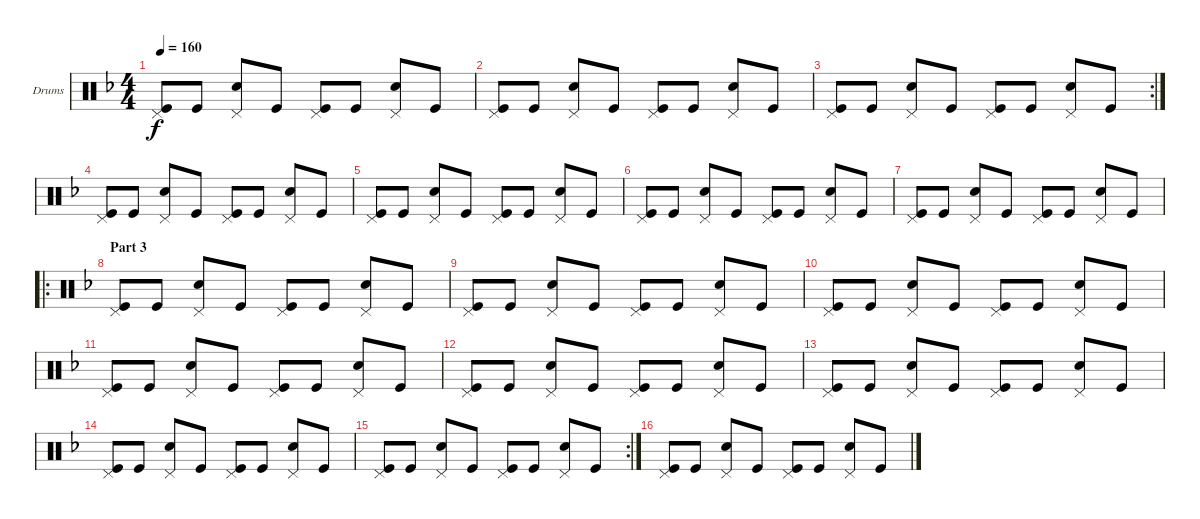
\defaultSystemsLayout 4
\bracketExtendMode groupsimilarinstruments
\firstSystemTrackNameOrientation horizontal
\otherSystemsTrackNameOrientation horizontal
\track ("Drumkit" "Drums") {instrument percussion}
\staff {score}
\articulation defaults
\ts (4 4)
\tempo 160
\clef neutral
\ks dminor
("Kick (hit)" "Pedal Hi-Hat (hit)").8{dy f} "Kick (hit)".8 ("Snare (hit) 2" "Pedal Hi-Hat (hit)").8 "Kick (hit)".8 ("Kick (hit)" "Pedal Hi-Hat (hit)").8 "Kick (hit)".8 ("Snare (hit) 2" "Pedal Hi-Hat (hit)").8 "Kick (hit)".8 |
("Kick (hit)" "Pedal Hi-Hat (hit)").8 "Kick (hit)".8 ("Snare (hit) 2" "Pedal Hi-Hat (hit)").8 "Kick (hit)".8 ("Kick (hit)" "Pedal Hi-Hat (hit)").8 "Kick (hit)".8 ("Snare (hit) 2" "Pedal Hi-Hat (hit)").8 "Kick (hit)".8 |
\rc 2
("Kick (hit)" "Pedal Hi-Hat (hit)").8 "Kick (hit)".8 ("Snare (hit) 2" "Pedal Hi-Hat (hit)").8 "Kick (hit)".8 ("Kick (hit)" "Pedal Hi-Hat (hit)").8 "Kick (hit)".8 ("Snare (hit) 2" "Pedal Hi-Hat (hit)").8 "Kick (hit)".8 |
("Kick (hit)" "Pedal Hi-Hat (hit)").8 "Kick (hit)".8 ("Snare (hit) 2" "Pedal Hi-Hat (hit)").8 "Kick (hit)".8 ("Kick (hit)" "Pedal Hi-Hat (hit)").8 "Kick (hit)".8 ("Snare (hit) 2" "Pedal Hi-Hat (hit)").8 "Kick (hit)".8 |
("Kick (hit)" "Pedal Hi-Hat (hit)").8 "Kick (hit)".8 ("Snare (hit) 2" "Pedal Hi-Hat (hit)").8 "Kick (hit)".8 ("Kick (hit)" "Pedal Hi-Hat (hit)").8 "Kick (hit)".8 ("Snare (hit) 2" "Pedal Hi-Hat (hit)").8 "Kick (hit)".8 |
("Kick (hit)" "Pedal Hi-Hat (hit)").8 "Kick (hit)".8 ("Snare (hit) 2" "Pedal Hi-Hat (hit)").8 "Kick (hit)".8 ("Kick (hit)" "Pedal Hi-Hat (hit)").8 "Kick (hit)".8 ("Snare (hit) 2" "Pedal Hi-Hat (hit)").8 "Kick (hit)".8 |
("Kick (hit)" "Pedal Hi-Hat (hit)").8 "Kick (hit)".8 ("Snare (hit) 2" "Pedal Hi-Hat (hit)").8 "Kick (hit)".8 ("Kick (hit)" "Pedal Hi-Hat (hit)").8 "Kick (hit)".8 ("Snare (hit) 2" "Pedal Hi-Hat (hit)").8 "Kick (hit)".8 |
\ro
\section ("" "Part 3")
("Kick (hit)" "Pedal Hi-Hat (hit)").8 "Kick (hit)".8 ("Snare (hit) 2" "Pedal Hi-Hat (hit)").8 "Kick (hit)".8 ("Kick (hit)" "Pedal Hi-Hat (hit)").8 "Kick (hit)".8 ("Snare (hit) 2" "Pedal Hi-Hat (hit)").8 "Kick (hit)".8 |
("Kick (hit)" "Pedal Hi-Hat (hit)").8 "Kick (hit)".8 ("Snare (hit) 2" "Pedal Hi-Hat (hit)").8 "Kick (hit)".8 ("Kick (hit)" "Pedal Hi-Hat (hit)").8 "Kick (hit)".8 ("Snare (hit) 2" "Pedal Hi-Hat (hit)").8 "Kick (hit)".8 |
("Kick (hit)" "Pedal Hi-Hat (hit)").8 "Kick (hit)".8 ("Snare (hit) 2" "Pedal Hi-Hat (hit)").8 "Kick (hit)".8 ("Kick (hit)" "Pedal Hi-Hat (hit)").8 "Kick (hit)".8 ("Snare (hit) 2" "Pedal Hi-Hat (hit)").8 "Kick (hit)".8 |
("Kick (hit)" "Pedal Hi-Hat (hit)").8 "Kick (hit)".8 ("Snare (hit) 2" "Pedal Hi-Hat (hit)").8 "Kick (hit)".8 ("Kick (hit)" "Pedal Hi-Hat (hit)").8 "Kick (hit)".8 ("Snare (hit) 2" "Pedal Hi-Hat (hit)").8 "Kick (hit)".8 |
("Kick (hit)" "Pedal Hi-Hat (hit)").8 "Kick (hit)".8 ("Snare (hit) 2" "Pedal Hi-Hat (hit)").8 "Kick (hit)".8 ("Kick (hit)" "Pedal Hi-Hat (hit)").8 "Kick (hit)".8 ("Snare (hit) 2" "Pedal Hi-Hat (hit)").8 "Kick (hit)".8 |
("Kick (hit)" "Pedal Hi-Hat (hit)").8 "Kick (hit)".8 ("Snare (hit) 2" "Pedal Hi-Hat (hit)").8 "Kick (hit)".8 ("Kick (hit)" "Pedal Hi-Hat (hit)").8 "Kick (hit)".8 ("Snare (hit) 2" "Pedal Hi-Hat (hit)").8 "Kick (hit)".8 |
("Kick (hit)" "Pedal Hi-Hat (hit)").8 "Kick (hit)".8 ("Snare (hit) 2" "Pedal Hi-Hat (hit)").8 "Kick (hit)".8 ("Kick (hit)" "Pedal Hi-Hat (hit)").8 "Kick (hit)".8 ("Snare (hit) 2" "Pedal Hi-Hat (hit)").8 "Kick (hit)".8 |
\rc 2
("Kick (hit)" "Pedal Hi-Hat (hit)").8 "Kick (hit)".8 ("Snare (hit) 2" "Pedal Hi-Hat (hit)").8 "Kick (hit)".8 ("Kick (hit)" "Pedal Hi-Hat (hit)").8 "Kick (hit)".8 ("Snare (hit) 2" "Pedal Hi-Hat (hit)").8 "Kick (hit)".8 |
("Kick (hit)" "Pedal Hi-Hat (hit)").8 "Kick (hit)".8 ("Snare (hit) 2" "Pedal Hi-Hat (hit)").8 "Kick (hit)".8 ("Kick (hit)" "Pedal Hi-Hat (hit)").8 "Kick (hit)".8 ("Snare (hit) 2" "Pedal Hi-Hat (hit)").8 "Kick (hit)".8
